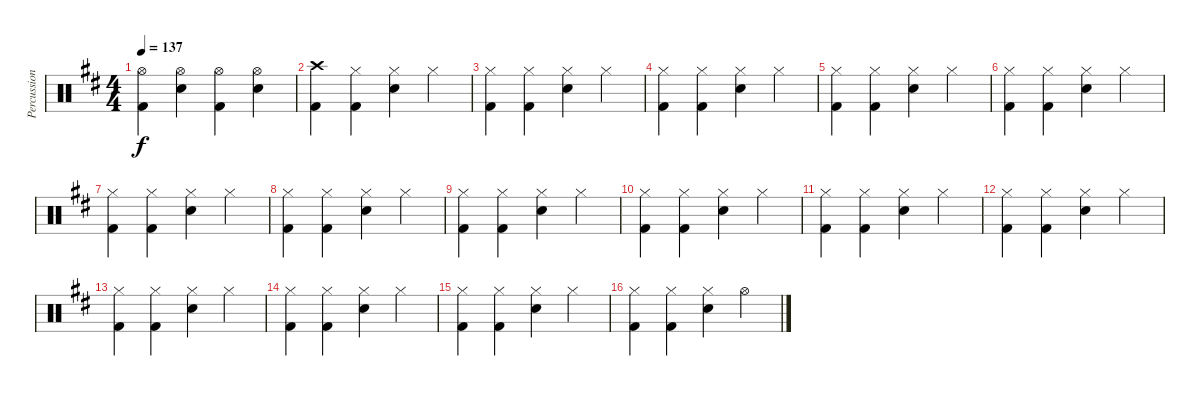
\track ("Percussion" "Percussion") {instrument percussion}
\staff {score}
\articulation defaults
\ts (4 4)
\tempo 137
\clef neutral
\ks d
("Hi-Hat (open)" "Kick (hit) 2").4{dy f} ("Hi-Hat (open)" "Snare (hit) 2").4 ("Hi-Hat (open)" "Kick (hit) 2").4 ("Hi-Hat (open)" "Snare (hit) 2").4 |
("Crash high (hit)" "Kick (hit) 2").4 ("Hi-Hat (closed)" "Kick (hit) 2").4 ("Hi-Hat (closed)" "Snare (hit) 2").4 "Hi-Hat (closed)".4 |
("Hi-Hat (closed)" "Kick (hit) 2").4 ("Hi-Hat (closed)" "Kick (hit) 2").4 ("Hi-Hat (closed)" "Snare (hit) 2").4 "Hi-Hat (closed)".4 |
("Hi-Hat (closed)" "Kick (hit) 2").4 ("Hi-Hat (closed)" "Kick (hit) 2").4 ("Hi-Hat (closed)" "Snare (hit) 2").4 "Hi-Hat (closed)".4 |
("Hi-Hat (closed)" "Kick (hit) 2").4 ("Hi-Hat (closed)" "Kick (hit) 2").4 ("Hi-Hat (closed)" "Snare (hit) 2").4 "Hi-Hat (closed)".4 |
("Hi-Hat (closed)" "Kick (hit) 2").4 ("Hi-Hat (closed)" "Kick (hit) 2").4 ("Hi-Hat (closed)" "Snare (hit) 2").4 "Hi-Hat (closed)".4 |
("Hi-Hat (closed)" "Kick (hit) 2").4 ("Hi-Hat (closed)" "Kick (hit) 2").4 ("Hi-Hat (closed)" "Snare (hit) 2").4 "Hi-Hat (closed)".4 |
("Hi-Hat (closed)" "Kick (hit) 2").4 ("Hi-Hat (closed)" "Kick (hit) 2").4 ("Hi-Hat (closed)" "Snare (hit) 2").4 "Hi-Hat (closed)".4 |
("Hi-Hat (closed)" "Kick (hit) 2").4 ("Hi-Hat (closed)" "Kick (hit) 2").4 ("Hi-Hat (closed)" "Snare (hit) 2").4 "Hi-Hat (closed)".4 |
("Hi-Hat (closed)" "Kick (hit) 2").4 ("Hi-Hat (closed)" "Kick (hit) 2").4 ("Hi-Hat (closed)" "Snare (hit) 2").4 "Hi-Hat (closed)".4 |
("Hi-Hat (closed)" "Kick (hit) 2").4 ("Hi-Hat (closed)" "Kick (hit) 2").4 ("Hi-Hat (closed)" "Snare (hit) 2").4 "Hi-Hat (closed)".4 |
("Hi-Hat (closed)" "Kick (hit) 2").4 ("Hi-Hat (closed)" "Kick (hit) 2").4 ("Hi-Hat (closed)" "Snare (hit) 2").4 "Hi-Hat (closed)".4 |
("Hi-Hat (closed)" "Kick (hit) 2").4 ("Hi-Hat (closed)" "Kick (hit) 2").4 ("Hi-Hat (closed)" "Snare (hit) 2").4 "Hi-Hat (closed)".4 |
("Hi-Hat (closed)" "Kick (hit) 2").4 ("Hi-Hat (closed)" "Kick (hit) 2").4 ("Hi-Hat (closed)" "Snare (hit) 2").4 "Hi-Hat (closed)".4 |
("Hi-Hat (closed)" "Kick (hit) 2").4 ("Hi-Hat (closed)" "Kick (hit) 2").4 ("Hi-Hat (closed)" "Snare (hit) 2").4 "Hi-Hat (closed)".4 |
("Hi-Hat (closed)" "Kick (hit) 2").4 ("Hi-Hat (closed)" "Kick (hit) 2").4 ("Hi-Hat (closed)" "Snare (hit) 2").4 "Hi-Hat (open)".4
